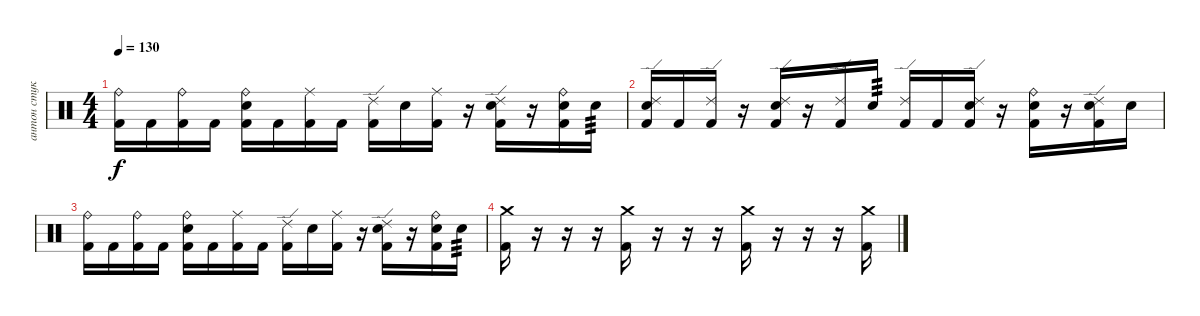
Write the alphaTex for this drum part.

\track ("антон стукачь" "антон стук") {instrument percussion}
\staff {score}
\articulation defaults
\ts (4 4)
\tempo 130
\clef neutral
\ks c
("Ride (bell)" "Kick (hit) 2").16{dy f} "Kick (hit) 2".16 ("Ride (bell)" "Kick (hit) 2").16 "Kick (hit) 2".16 ("Ride (bell)" "Electric Snare (hit)" "Kick (hit) 2").16 "Kick (hit) 2".16 ("Ride (middle)" "Kick (hit) 2").16 "Kick (hit) 2".16 ("Ride (edge) 2" "Kick (hit) 2").16 "Electric Snare (hit)".16 ("Ride (middle)" "Kick (hit) 2").16 r.16 ("Ride (edge) 2" "Electric Snare (hit)" "Kick (hit) 2").16 r.16 ("Ride (bell)" "Electric Snare (hit)" "Kick (hit) 2").16 "Electric Snare (hit)".16{tp 3} |
("Ride (edge) 2" "Electric Snare (hit)" "Kick (hit) 2").16 "Kick (hit) 2".16 ("Ride (edge) 2" "Kick (hit) 2").16 r.16 ("Ride (edge) 2" "Electric Snare (hit)" "Kick (hit) 2").16 r.16 ("Ride (edge) 2" "Kick (hit) 2").16 "Electric Snare (hit)".16{tp 3} ("Ride (edge) 2" "Kick (hit) 2").16 "Kick (hit) 2".16 ("Ride (edge) 2" "Electric Snare (hit)" "Kick (hit) 2").16 r.16 ("Ride (bell)" "Electric Snare (hit)" "Kick (hit) 2").16 r.16 ("Ride (edge) 2" "Electric Snare (hit)" "Kick (hit) 2").16 "Electric Snare (hit)".16 |
("Ride (bell)" "Kick (hit) 2").16 "Kick (hit) 2".16 ("Ride (bell)" "Kick (hit) 2").16 "Kick (hit) 2".16 ("Ride (bell)" "Electric Snare (hit)" "Kick (hit) 2").16 "Kick (hit) 2".16 ("Ride (middle)" "Kick (hit) 2").16 "Kick (hit) 2".16 ("Ride (edge) 2" "Kick (hit) 2").16 "Electric Snare (hit)".16 ("Ride (middle)" "Kick (hit) 2").16 r.16 ("Ride (edge) 2" "Electric Snare (hit)" "Kick (hit) 2").16 r.16 ("Ride (bell)" "Electric Snare (hit)" "Kick (hit) 2").16 "Electric Snare (hit)".16{tp 3} |
("Crash medium (hit)" "Kick (hit) 2").16 r.16 r.16 r.16 ("Crash medium (hit)" "Kick (hit) 2").16 r.16 r.16 r.16 ("Crash medium (hit)" "Kick (hit) 2").16 r.16 r.16 r.16 ("Crash medium (hit)" "Kick (hit) 2").16
